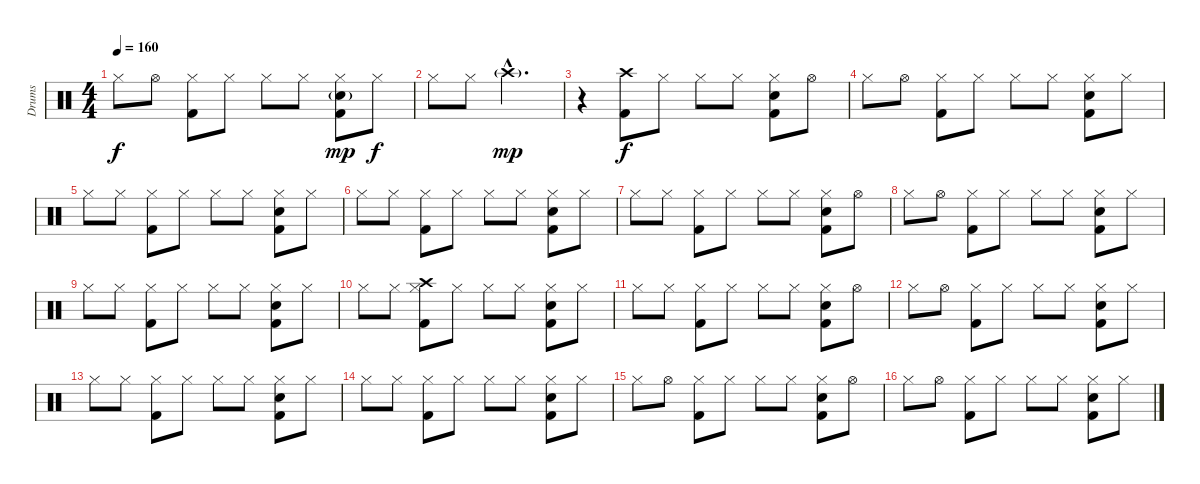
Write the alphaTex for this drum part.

\track ("Drums" "Drums") {instrument percussion}
\staff {score}
\articulation defaults
\ts (4 4)
\tempo 160
\clef neutral
\ks c "Hi-Hat (closed)".8{dy f} "Hi-Hat (open)".8
("Kick (hit) 2" "Hi-Hat (closed)").8 "Hi-Hat (closed)".8 "Hi-Hat (closed)".8 "Hi-Hat (closed)".8 ("Snare (hit) 2"{g} "Kick (hit) 2" "Hi-Hat (closed)").8{dy mp} "Hi-Hat (closed)".8{dy f} |
"Hi-Hat (closed)".8 "Hi-Hat (closed)".8 "Crash high (hit)"{g hac}.2{d dy mp} |
r.4 ("Crash high (hit)" "Kick (hit) 2").8{dy f} "Hi-Hat (closed)".8 "Hi-Hat (closed)".8 "Hi-Hat (closed)".8 ("Snare (hit) 2" "Kick (hit) 2" "Hi-Hat (closed)").8 "Hi-Hat (open)".8 |
"Hi-Hat (closed)".8 "Hi-Hat (open)".8 ("Kick (hit) 2" "Hi-Hat (closed)").8 "Hi-Hat (closed)".8 "Hi-Hat (closed)".8 "Hi-Hat (closed)".8 ("Snare (hit) 2" "Kick (hit) 2" "Hi-Hat (closed)").8 "Hi-Hat (closed)".8 |
"Hi-Hat (closed)".8 "Hi-Hat (closed)".8 ("Kick (hit) 2" "Hi-Hat (closed)").8 "Hi-Hat (closed)".8 "Hi-Hat (closed)".8 "Hi-Hat (closed)".8 ("Snare (hit) 2" "Kick (hit) 2" "Hi-Hat (closed)").8 "Hi-Hat (closed)".8 |
"Hi-Hat (closed)".8 "Hi-Hat (closed)".8 ("Kick (hit) 2" "Hi-Hat (closed)").8 "Hi-Hat (closed)".8 "Hi-Hat (closed)".8 "Hi-Hat (closed)".8 ("Snare (hit) 2" "Kick (hit) 2" "Hi-Hat (closed)").8 "Hi-Hat (closed)".8 |
"Hi-Hat (closed)".8 "Hi-Hat (closed)".8 ("Kick (hit) 2" "Hi-Hat (closed)").8 "Hi-Hat (closed)".8 "Hi-Hat (closed)".8 "Hi-Hat (closed)".8 ("Snare (hit) 2" "Kick (hit) 2" "Hi-Hat (closed)").8 "Hi-Hat (open)".8 |
"Hi-Hat (closed)".8 "Hi-Hat (open)".8 ("Kick (hit) 2" "Hi-Hat (closed)").8 "Hi-Hat (closed)".8 "Hi-Hat (closed)".8 "Hi-Hat (closed)".8 ("Snare (hit) 2" "Kick (hit) 2" "Hi-Hat (closed)").8 "Hi-Hat (closed)".8 |
"Hi-Hat (closed)".8 "Hi-Hat (closed)".8 ("Kick (hit) 2" "Hi-Hat (closed)").8 "Hi-Hat (closed)".8 "Hi-Hat (closed)".8 "Hi-Hat (closed)".8 ("Snare (hit) 2" "Kick (hit) 2" "Hi-Hat (closed)").8 "Hi-Hat (closed)".8 |
"Hi-Hat (closed)".8 "Hi-Hat (closed)".8 ("Crash high (hit)" "Kick (hit) 2" "Hi-Hat (closed)").8 "Hi-Hat (closed)".8 "Hi-Hat (closed)".8 "Hi-Hat (closed)".8 ("Snare (hit) 2" "Kick (hit) 2" "Hi-Hat (closed)").8 "Hi-Hat (closed)".8 |
"Hi-Hat (closed)".8 "Hi-Hat (closed)".8 ("Kick (hit) 2" "Hi-Hat (closed)").8 "Hi-Hat (closed)".8 "Hi-Hat (closed)".8 "Hi-Hat (closed)".8 ("Snare (hit) 2" "Kick (hit) 2" "Hi-Hat (closed)").8 "Hi-Hat (open)".8 |
"Hi-Hat (closed)".8 "Hi-Hat (open)".8 ("Kick (hit) 2" "Hi-Hat (closed)").8 "Hi-Hat (closed)".8 "Hi-Hat (closed)".8 "Hi-Hat (closed)".8 ("Snare (hit) 2" "Kick (hit) 2" "Hi-Hat (closed)").8 "Hi-Hat (closed)".8 |
"Hi-Hat (closed)".8 "Hi-Hat (closed)".8 ("Kick (hit) 2" "Hi-Hat (closed)").8 "Hi-Hat (closed)".8 "Hi-Hat (closed)".8 "Hi-Hat (closed)".8 ("Snare (hit) 2" "Kick (hit) 2" "Hi-Hat (closed)").8 "Hi-Hat (closed)".8 |
"Hi-Hat (closed)".8 "Hi-Hat (closed)".8 ("Kick (hit) 2" "Hi-Hat (closed)").8 "Hi-Hat (closed)".8 "Hi-Hat (closed)".8 "Hi-Hat (closed)".8 ("Snare (hit) 2" "Kick (hit) 2" "Hi-Hat (closed)").8 "Hi-Hat (closed)".8 |
"Hi-Hat (closed)".8 "Hi-Hat (open)".8 ("Kick (hit) 2" "Hi-Hat (closed)").8 "Hi-Hat (closed)".8 "Hi-Hat (closed)".8 "Hi-Hat (closed)".8 ("Snare (hit) 2" "Kick (hit) 2" "Hi-Hat (closed)").8 "Hi-Hat (open)".8 |
"Hi-Hat (closed)".8 "Hi-Hat (open)".8 ("Kick (hit) 2" "Hi-Hat (closed)").8 "Hi-Hat (closed)".8 "Hi-Hat (closed)".8 "Hi-Hat (closed)".8 ("Snare (hit) 2" "Kick (hit) 2" "Hi-Hat (closed)").8 "Hi-Hat (closed)".8
